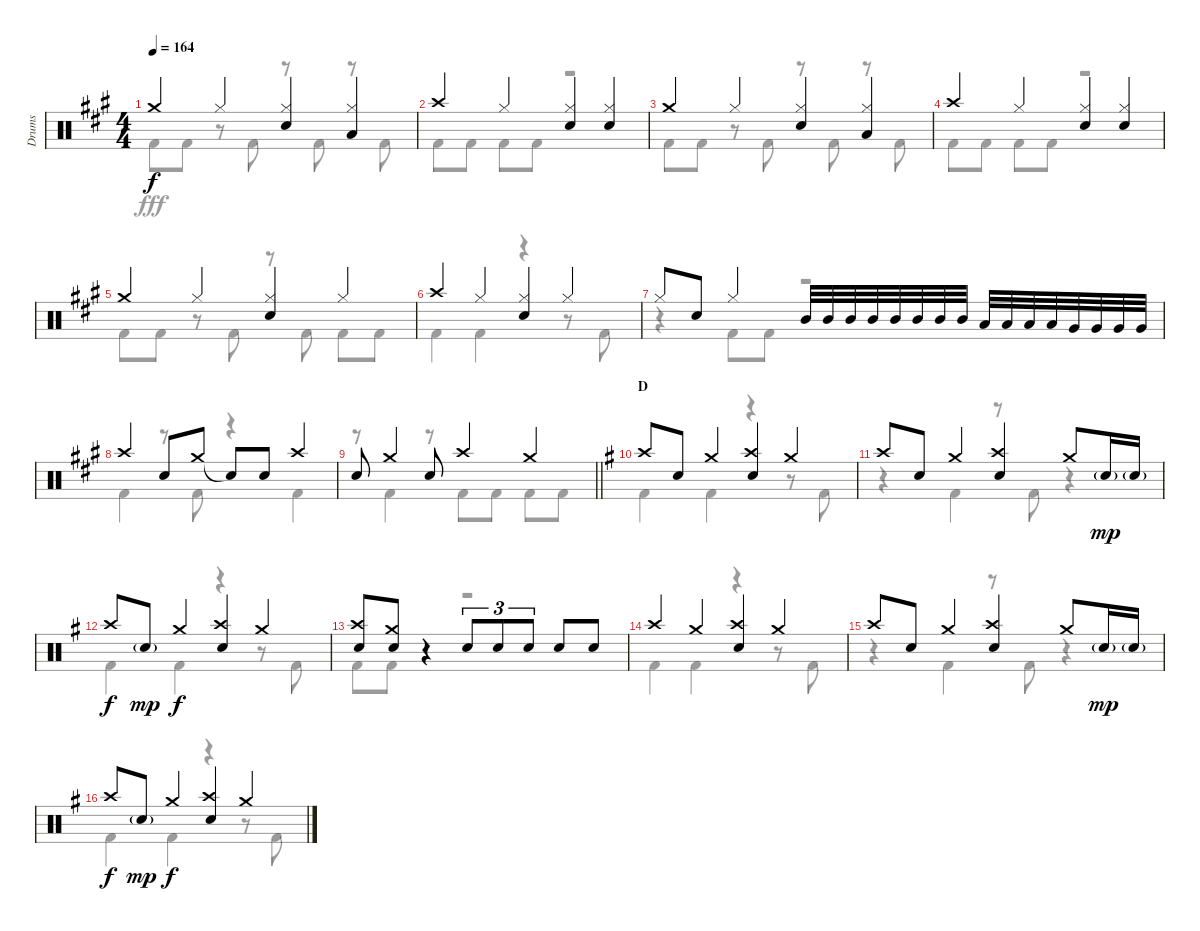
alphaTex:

\track ("Drums" "Drums") {instrument percussion}
\staff {score}
\articulation defaults
\voice
\ts (4 4)
\tempo 164
\clef neutral
\ks a "Crash medium (hit)".4{dy f} "Hi-Hat (closed)".4
("Hi-Hat (closed)" "Snare (hit) 2").4 ("Hi-Hat (closed)" "Low Tom (hit)").4 |
"Crash high (hit)".4 "Hi-Hat (closed)".4 ("Hi-Hat (closed)" "Snare (hit) 2").4 ("Hi-Hat (closed)" "Snare (hit) 2").4 |
"Crash medium (hit)".4 "Hi-Hat (closed)".4 ("Hi-Hat (closed)" "Snare (hit) 2").4 ("Hi-Hat (closed)" "Low Tom (hit)").4 |
"Crash high (hit)".4 "Hi-Hat (closed)".4 ("Hi-Hat (closed)" "Snare (hit) 2").4 ("Hi-Hat (closed)" "Snare (hit) 2").4 |
"Crash medium (hit)".4 "Hi-Hat (closed)".4 ("Hi-Hat (closed)" "Snare (hit) 2").4 "Hi-Hat (closed)".4 |
"Crash high (hit)".4 "Hi-Hat (closed)".4 ("Hi-Hat (closed)" "Snare (hit) 2").4 "Hi-Hat (closed)".4 |
"Hi-Hat (closed)".8 "Snare (hit) 2".8 "Hi-Hat (closed)".4 "Mid Tom (hit)".32 "Mid Tom (hit)".32 "Mid Tom (hit)".32 "Mid Tom (hit)".32 "Mid Tom (hit)".32 "Mid Tom (hit)".32 "Mid Tom (hit)".32 "Mid Tom (hit)".32 "Low Tom (hit)".32 "Low Tom (hit)".32 "Low Tom (hit)".32 "Low Tom (hit)".32 "Very Low Tom (hit)".32 "Very Low Tom (hit)".32 "Very Low Tom (hit)".32 "Very Low Tom (hit)".32 |
"Crash high (hit)".4 "Snare (hit) 2".8 "Crash medium (hit)".8 "Snare (hit)"{t}.8 "Snare (hit) 2".8 "Crash high (hit)".4 |
\barLineRight lightlight "Snare (hit) 2".8 "Crash medium (hit)".4 "Snare (hit) 2".8 "Crash high (hit)".4 "Crash medium (hit)".4
|
\section ("" "D")
\ks g "Crash high (hit)".8 "Snare (hit) 2".8 "Crash medium (hit)".4
("Crash high (hit)" "Snare (hit) 2").4 "Crash medium (hit)".4 |
"Crash high (hit)".8 "Snare (hit) 2".8 "Crash medium (hit)".4 ("Crash high (hit)" "Snare (hit) 2").4 "Crash medium (hit)".8 "Snare (hit) 2"{g}.16{dy mp} "Snare (hit) 2"{g}.16 |
"Crash high (hit)".8{dy f} "Snare (hit) 2"{g}.8{dy mp} "Crash medium (hit)".4{dy f} ("Crash high (hit)" "Snare (hit) 2").4 "Crash medium (hit)".4 |
("Crash high (hit)" "Snare (hit) 2").8 ("Crash medium (hit)" "Snare (hit) 2").8 r.4 "Snare (hit) 2".8{tu (3 2)} "Snare (hit) 2".8{tu (3 2)} "Snare (hit) 2".8{tu (3 2)} "Snare (hit) 2".8 "Snare (hit) 2".8 |
"Crash high (hit)".4 "Crash medium (hit)".4 ("Crash high (hit)" "Snare (hit) 2").4 "Crash medium (hit)".4 |
"Crash high (hit)".8 "Snare (hit) 2".8 "Crash medium (hit)".4 ("Crash high (hit)" "Snare (hit) 2").4 "Crash medium (hit)".8 "Snare (hit) 2"{g}.16{dy mp} "Snare (hit) 2"{g}.16 |
"Crash high (hit)".8{dy f} "Snare (hit) 2"{g}.8{dy mp} "Crash medium (hit)".4{dy f} ("Crash high (hit)" "Snare (hit) 2").4 "Crash medium (hit)".4
\voice
\clef neutral
\ottava regular
\simile none
\ks a "Kick (hit) 2".8{dy fff} "Kick (hit) 2".8
r.8 "Kick (hit) 2".8 r.8 "Kick (hit) 2".8 r.8 "Kick (hit) 2".8 |
"Kick (hit) 2".8 "Kick (hit) 2".8 "Kick (hit) 2".8 "Kick (hit) 2".8 r.2 |
"Kick (hit) 2".8 "Kick (hit) 2".8 r.8 "Kick (hit) 2".8 r.8 "Kick (hit) 2".8 r.8 "Kick (hit) 2".8 |
"Kick (hit) 2".8 "Kick (hit) 2".8 "Kick (hit) 2".8 "Kick (hit) 2".8 r.2 |
"Kick (hit) 2".8 "Kick (hit) 2".8 r.8 "Kick (hit) 2".8 r.8 "Kick (hit) 2".8 "Kick (hit) 2".8 "Kick (hit) 2".8 |
"Kick (hit) 2".4 "Kick (hit) 2".4 r.4 r.8 "Kick (hit) 2".8 |
r.4 "Kick (hit) 2".8 "Kick (hit) 2".8 r.2 |
"Kick (hit) 2".4 r.8 "Kick (hit) 2".8 r.4 "Kick (hit) 2".4 |
\barLineRight lightlight
r.8 "Kick (hit) 2".4 r.8 "Kick (hit) 2".8 "Kick (hit) 2".8 "Kick (hit) 2".8 "Kick (hit) 2".8 |
\ks g "Kick (hit) 2".4 "Kick (hit) 2".4
r.4 r.8 "Kick (hit) 2".8 |
r.4 "Kick (hit) 2".4 r.8 "Kick (hit) 2".8 r.4 |
"Kick (hit) 2".4 "Kick (hit) 2".4 r.4 r.8 "Kick (hit) 2".8 |
"Kick (hit) 2".8 "Kick (hit) 2".8 r.4 r.2 |
"Kick (hit) 2".4 "Kick (hit) 2".4 r.4 r.8 "Kick (hit) 2".8 |
r.4 "Kick (hit) 2".4 r.8 "Kick (hit) 2".8 r.4 |
"Kick (hit) 2".4 "Kick (hit) 2".4 r.4 r.8 "Kick (hit) 2".8
